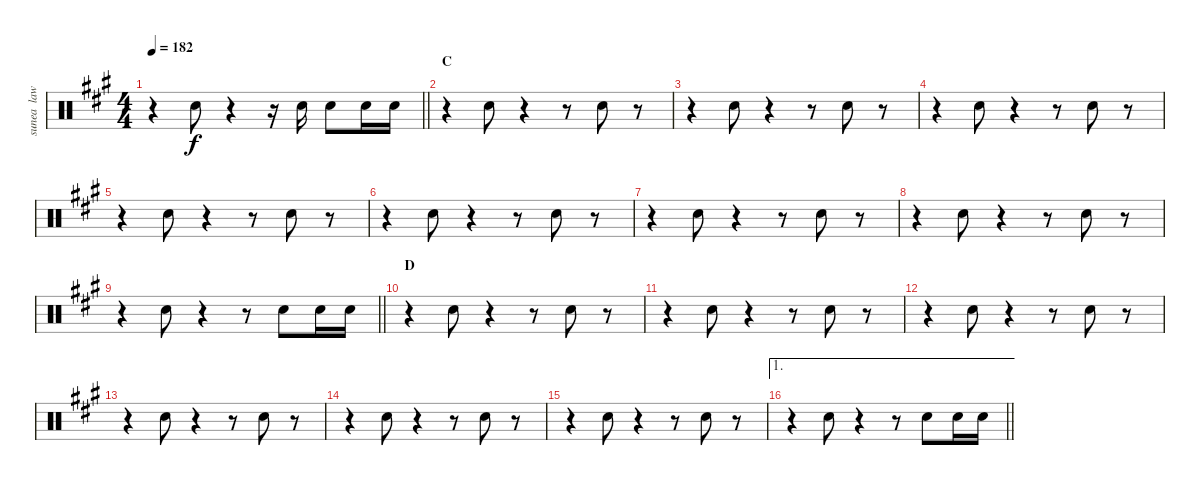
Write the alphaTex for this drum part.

\track ("sunea  law tam" "sunea  law") {instrument percussion}
\staff {score}
\articulation defaults
\ts (4 4)
\tempo 182
\clef neutral
\barLineRight lightlight
\ks f#minor
r.4{dy f} "Snare (hit) 2".8 r.4 r.16 "Snare (hit) 2".16 "Snare (hit) 2".8 "Snare (hit) 2".16 "Snare (hit) 2".16 |
\section ("" "C")
r.4 "Snare (hit) 2".8 r.4 r.8 "Snare (hit) 2".8 r.8 |
r.4 "Snare (hit) 2".8 r.4 r.8 "Snare (hit) 2".8 r.8 |
r.4 "Snare (hit) 2".8 r.4 r.8 "Snare (hit) 2".8 r.8 |
r.4 "Snare (hit) 2".8 r.4 r.8 "Snare (hit) 2".8 r.8 |
r.4 "Snare (hit) 2".8 r.4 r.8 "Snare (hit) 2".8 r.8 |
r.4 "Snare (hit) 2".8 r.4 r.8 "Snare (hit) 2".8 r.8 |
r.4 "Snare (hit) 2".8 r.4 r.8 "Snare (hit) 2".8 r.8 |
\barLineRight lightlight
r.4 "Snare (hit) 2".8 r.4 r.8 "Snare (hit) 2".8 "Snare (hit) 2".16 "Snare (hit) 2".16 |
\section ("" "D")
r.4 "Snare (hit) 2".8 r.4 r.8 "Snare (hit) 2".8 r.8 |
r.4 "Snare (hit) 2".8 r.4 r.8 "Snare (hit) 2".8 r.8 |
r.4 "Snare (hit) 2".8 r.4 r.8 "Snare (hit) 2".8 r.8 |
r.4 "Snare (hit) 2".8 r.4 r.8 "Snare (hit) 2".8 r.8 |
r.4 "Snare (hit) 2".8 r.4 r.8 "Snare (hit) 2".8 r.8 |
r.4 "Snare (hit) 2".8 r.4 r.8 "Snare (hit) 2".8 r.8 |
\ae 1
\barLineRight lightlight
r.4 "Snare (hit) 2".8 r.4 r.8 "Snare (hit) 2".8 "Snare (hit) 2".16 "Snare (hit) 2".16
